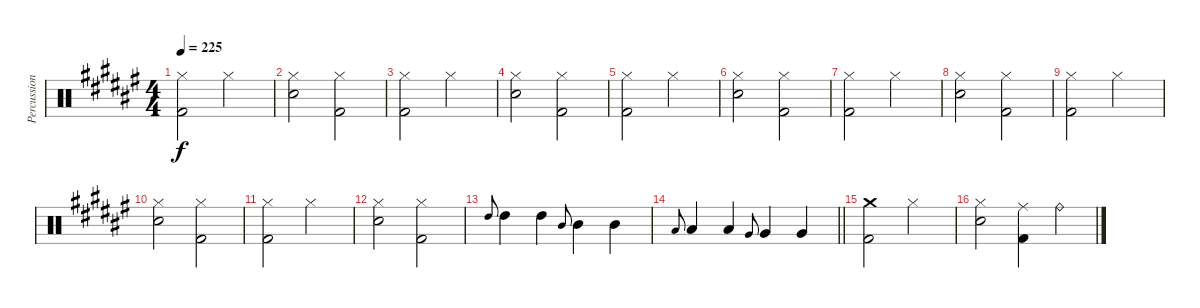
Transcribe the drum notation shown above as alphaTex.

\track ("Percussions" "Percussion") {instrument percussion}
\staff {score}
\articulation defaults
\ts (4 4)
\tempo 225
\clef neutral
\ks f#
("Hi-Hat (closed)" "Kick (hit) 2").2{dy f} "Hi-Hat (closed)".2 |
("Hi-Hat (closed)" "Snare (hit) 2").2 ("Hi-Hat (closed)" "Kick (hit) 2").2 |
("Hi-Hat (closed)" "Kick (hit) 2").2 "Hi-Hat (closed)".2 |
("Hi-Hat (closed)" "Snare (hit) 2").2 ("Hi-Hat (closed)" "Kick (hit) 2").2 |
("Hi-Hat (closed)" "Kick (hit) 2").2 "Hi-Hat (closed)".2 |
("Hi-Hat (closed)" "Snare (hit) 2").2 ("Hi-Hat (closed)" "Kick (hit) 2").2 |
("Hi-Hat (closed)" "Kick (hit) 2").2 "Hi-Hat (closed)".2 |
("Hi-Hat (closed)" "Snare (hit) 2").2 ("Hi-Hat (closed)" "Kick (hit) 2").2 |
("Hi-Hat (closed)" "Kick (hit) 2").2 "Hi-Hat (closed)".2 |
("Hi-Hat (closed)" "Snare (hit) 2").2 ("Hi-Hat (closed)" "Kick (hit) 2").2 |
("Hi-Hat (closed)" "Kick (hit) 2").2 "Hi-Hat (closed)".2 |
("Hi-Hat (closed)" "Snare (hit) 2").2 ("Hi-Hat (closed)" "Kick (hit) 2").2 |
"High Tom (hit)".8{gr onbeat} "High Tom (hit)".4 "High Tom (hit)".4 "Mid Tom (hit)".8{gr onbeat} "Mid Tom (hit)".4 "Mid Tom (hit)".4 |
\barLineRight lightlight "Low Tom (hit)".8{gr onbeat} "Low Tom (hit)".4 "Low Tom (hit)".4 "Very Low Tom (hit)".8{gr onbeat} "Very Low Tom (hit)".4 "Very Low Tom (hit)".4
|
("Crash medium (hit)" "Kick (hit) 2").2 "Hi-Hat (closed)".2 |
("Hi-Hat (closed)" "Snare (hit) 2").2 ("Ride (middle)" "Kick (hit) 2").4 "Ride (bell)".4
